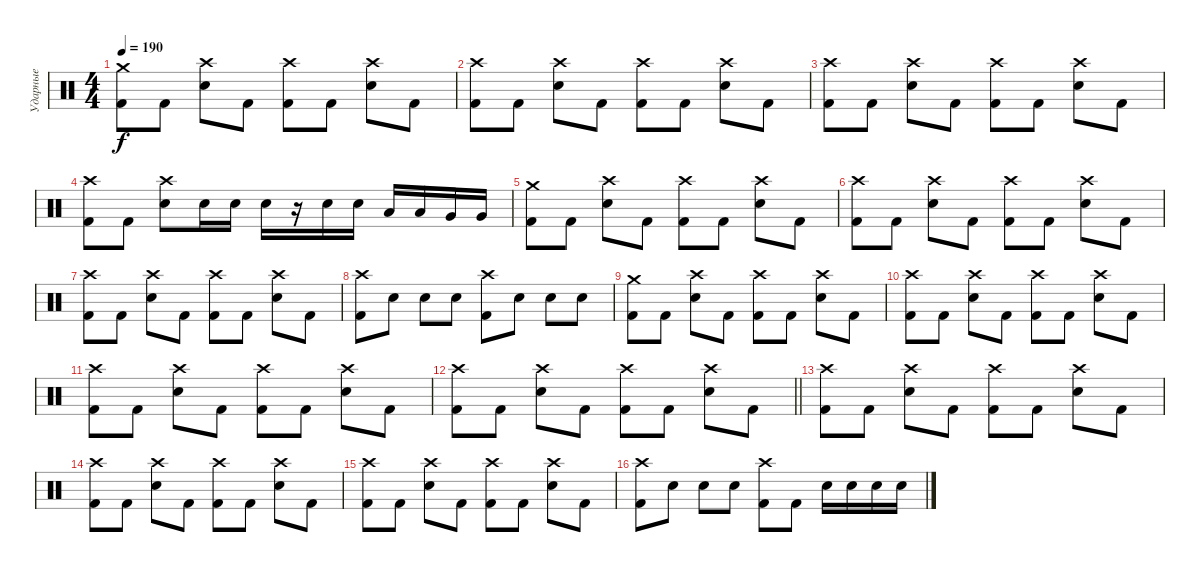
\track ("Ударные" "Ударные") {instrument percussion}
\staff {score}
\articulation defaults
\ts (4 4)
\tempo 190
\clef neutral
\ks c
("Crash medium (hit)" "Kick (hit) 2").8{dy f} "Kick (hit) 2".8 ("Crash high (hit)" "Snare (hit) 2").8 "Kick (hit) 2".8 ("Crash high (hit)" "Kick (hit) 2").8 "Kick (hit) 2".8 ("Crash high (hit)" "Snare (hit) 2").8 "Kick (hit) 2".8 |
("Crash high (hit)" "Kick (hit) 2").8 "Kick (hit) 2".8 ("Crash high (hit)" "Snare (hit) 2").8 "Kick (hit) 2".8 ("Crash high (hit)" "Kick (hit) 2").8 "Kick (hit) 2".8 ("Crash high (hit)" "Snare (hit) 2").8 "Kick (hit) 2".8 |
("Crash high (hit)" "Kick (hit) 2").8 "Kick (hit) 2".8 ("Crash high (hit)" "Snare (hit) 2").8 "Kick (hit) 2".8 ("Crash high (hit)" "Kick (hit) 2").8 "Kick (hit) 2".8 ("Crash high (hit)" "Snare (hit) 2").8 "Kick (hit) 2".8 |
("Crash high (hit)" "Kick (hit) 2").8 "Kick (hit) 2".8 ("Crash high (hit)" "Snare (hit) 2").8 "Snare (hit) 2".16 "Snare (hit) 2".16 "Snare (hit) 2".16 r.16 "Snare (hit) 2".16 "Snare (hit) 2".16 "Low Tom (hit)".16 "Low Tom (hit)".16 "Very Low Tom (hit)".16 "Very Low Tom (hit)".16 |
("Crash medium (hit)" "Kick (hit) 2").8 "Kick (hit) 2".8 ("Crash high (hit)" "Snare (hit) 2").8 "Kick (hit) 2".8 ("Crash high (hit)" "Kick (hit) 2").8 "Kick (hit) 2".8 ("Crash high (hit)" "Snare (hit) 2").8 "Kick (hit) 2".8 |
("Crash high (hit)" "Kick (hit) 2").8 "Kick (hit) 2".8 ("Crash high (hit)" "Snare (hit) 2").8 "Kick (hit) 2".8 ("Crash high (hit)" "Kick (hit) 2").8 "Kick (hit) 2".8 ("Crash high (hit)" "Snare (hit) 2").8 "Kick (hit) 2".8 |
("Crash high (hit)" "Kick (hit) 2").8 "Kick (hit) 2".8 ("Crash high (hit)" "Snare (hit) 2").8 "Kick (hit) 2".8 ("Crash high (hit)" "Kick (hit) 2").8 "Kick (hit) 2".8 ("Crash high (hit)" "Snare (hit) 2").8 "Kick (hit) 2".8 |
("Crash high (hit)" "Kick (hit) 2").8 "Snare (hit) 2".8 "Snare (hit) 2".8 "Snare (hit) 2".8 ("Crash high (hit)" "Kick (hit) 2").8 "Snare (hit) 2".8 "Snare (hit) 2".8 "Snare (hit) 2".8 |
("Crash medium (hit)" "Kick (hit) 2").8 "Kick (hit) 2".8 ("Crash high (hit)" "Snare (hit) 2").8 "Kick (hit) 2".8 ("Crash high (hit)" "Kick (hit) 2").8 "Kick (hit) 2".8 ("Crash high (hit)" "Snare (hit) 2").8 "Kick (hit) 2".8 |
("Crash high (hit)" "Kick (hit) 2").8 "Kick (hit) 2".8 ("Crash high (hit)" "Snare (hit) 2").8 "Kick (hit) 2".8 ("Crash high (hit)" "Kick (hit) 2").8 "Kick (hit) 2".8 ("Crash high (hit)" "Snare (hit) 2").8 "Kick (hit) 2".8 |
("Crash high (hit)" "Kick (hit) 2").8 "Kick (hit) 2".8 ("Crash high (hit)" "Snare (hit) 2").8 "Kick (hit) 2".8 ("Crash high (hit)" "Kick (hit) 2").8 "Kick (hit) 2".8 ("Crash high (hit)" "Snare (hit) 2").8 "Kick (hit) 2".8 |
\barLineRight lightlight
("Crash high (hit)" "Kick (hit) 2").8 "Kick (hit) 2".8 ("Crash high (hit)" "Snare (hit) 2").8 "Kick (hit) 2".8 ("Crash high (hit)" "Kick (hit) 2").8 "Kick (hit) 2".8 ("Crash high (hit)" "Snare (hit) 2").8 "Kick (hit) 2".8 |
("Crash high (hit)" "Kick (hit) 2").8 "Kick (hit) 2".8 ("Crash high (hit)" "Snare (hit) 2").8 "Kick (hit) 2".8 ("Crash high (hit)" "Kick (hit) 2").8 "Kick (hit) 2".8 ("Crash high (hit)" "Snare (hit) 2").8 "Kick (hit) 2".8 |
("Crash high (hit)" "Kick (hit) 2").8 "Kick (hit) 2".8 ("Crash high (hit)" "Snare (hit) 2").8 "Kick (hit) 2".8 ("Crash high (hit)" "Kick (hit) 2").8 "Kick (hit) 2".8 ("Crash high (hit)" "Snare (hit) 2").8 "Kick (hit) 2".8 |
("Crash high (hit)" "Kick (hit) 2").8 "Kick (hit) 2".8 ("Crash high (hit)" "Snare (hit) 2").8 "Kick (hit) 2".8 ("Crash high (hit)" "Kick (hit) 2").8 "Kick (hit) 2".8 ("Crash high (hit)" "Snare (hit) 2").8 "Kick (hit) 2".8 |
("Crash high (hit)" "Kick (hit) 2").8 "Snare (hit) 2".8 "Snare (hit) 2".8 "Snare (hit) 2".8 ("Crash high (hit)" "Kick (hit) 2").8 "Kick (hit) 2".8 "Snare (hit) 2".16 "Snare (hit) 2".16 "Snare (hit) 2".16 "Snare (hit) 2".16
